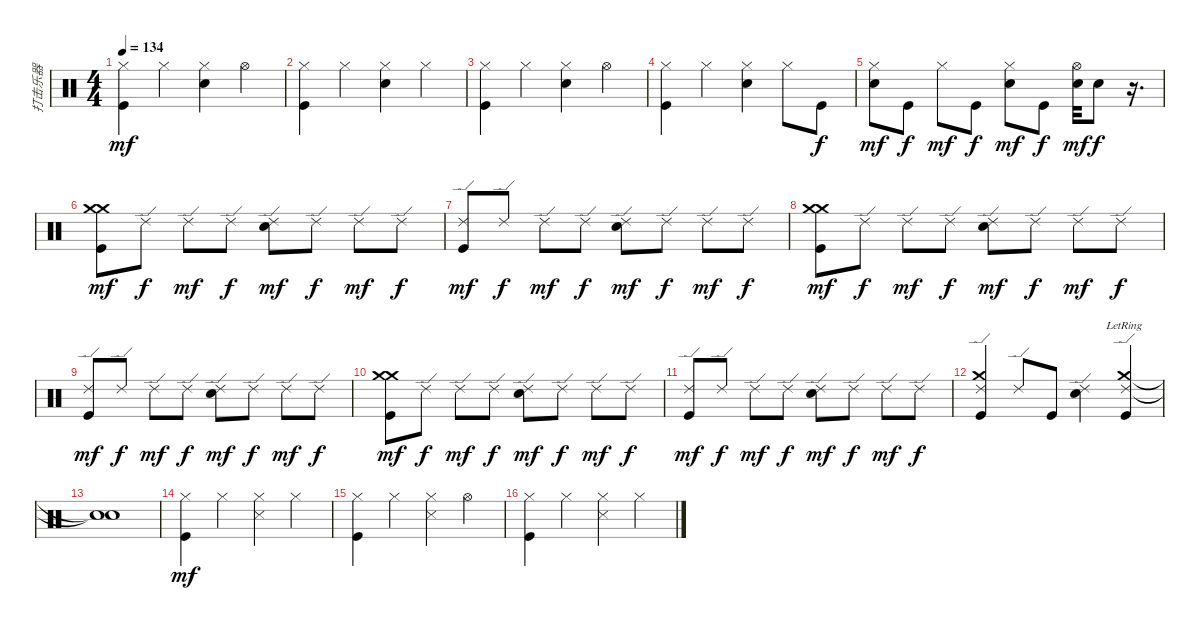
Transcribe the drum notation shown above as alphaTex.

\track ("打击乐器" "打击乐器") {instrument percussion}
\staff {score}
\articulation defaults
\ts (4 4)
\tempo 134
\clef neutral
\ks c
("Hi-Hat (closed)" "Kick (hit)").4{dy mf} "Hi-Hat (closed)".4 ("Hi-Hat (closed)" "Electric Snare (hit)").4 "Hi-Hat (open)".4 |
("Hi-Hat (closed)" "Kick (hit)").4 "Hi-Hat (closed)".4 ("Hi-Hat (closed)" "Electric Snare (hit)").4 "Hi-Hat (closed)".4 |
("Hi-Hat (closed)" "Kick (hit)").4 "Hi-Hat (closed)".4 ("Hi-Hat (closed)" "Electric Snare (hit)").4 "Hi-Hat (open)".4 |
("Hi-Hat (closed)" "Kick (hit)").4 "Hi-Hat (closed)".4 ("Hi-Hat (closed)" "Electric Snare (hit)").4 "Hi-Hat (closed)".8 "Kick (hit)".8{dy f} |
("Hi-Hat (closed)" "Electric Snare (hit)").8{dy mf} "Kick (hit)".8{dy f} "Hi-Hat (closed)".8{dy mf} "Kick (hit)".8{dy f} ("Hi-Hat (closed)" "Electric Snare (hit)").8{dy mf} "Kick (hit)".8{dy f} ("Hi-Hat (open)" "Electric Snare (hit)").32{dy mf} "Electric Snare (hit)".8{dy f} r.16{d} |
("Crash medium (hit)" "Crash medium (hit)" "Kick (hit)").8{dy mf} "Ride (edge) 2".8{dy f} "Ride (edge) 2".8{dy mf} "Ride (edge) 2".8{dy f} ("Ride (edge) 2" "Electric Snare (hit)").8{dy mf} "Ride (edge) 2".8{dy f} "Ride (edge) 2".8{dy mf} "Ride (edge) 2".8{dy f} |
("Ride (edge) 2" "Kick (hit)").8{dy mf} "Ride (edge) 2".8{dy f} "Ride (edge) 2".8{dy mf} "Ride (edge) 2".8{dy f} ("Ride (edge) 2" "Electric Snare (hit)").8{dy mf} "Ride (edge) 2".8{dy f} "Ride (edge) 2".8{dy mf} "Ride (edge) 2".8{dy f} |
("Crash medium (hit)" "Crash medium (hit)" "Kick (hit)").8{dy mf} "Ride (edge) 2".8{dy f} "Ride (edge) 2".8{dy mf} "Ride (edge) 2".8{dy f} ("Ride (edge) 2" "Electric Snare (hit)").8{dy mf} "Ride (edge) 2".8{dy f} "Ride (edge) 2".8{dy mf} "Ride (edge) 2".8{dy f} |
("Ride (edge) 2" "Kick (hit)").8{dy mf} "Ride (edge) 2".8{dy f} "Ride (edge) 2".8{dy mf} "Ride (edge) 2".8{dy f} ("Ride (edge) 2" "Electric Snare (hit)").8{dy mf} "Ride (edge) 2".8{dy f} "Ride (edge) 2".8{dy mf} "Ride (edge) 2".8{dy f} |
("Crash medium (hit)" "Crash medium (hit)" "Kick (hit)").8{dy mf} "Ride (edge) 2".8{dy f} "Ride (edge) 2".8{dy mf} "Ride (edge) 2".8{dy f} ("Ride (edge) 2" "Electric Snare (hit)").8{dy mf} "Ride (edge) 2".8{dy f} "Ride (edge) 2".8{dy mf} "Ride (edge) 2".8{dy f} |
("Ride (edge) 2" "Kick (hit)").8{dy mf} "Ride (edge) 2".8{dy f} "Ride (edge) 2".8{dy mf} "Ride (edge) 2".8{dy f} ("Ride (edge) 2" "Electric Snare (hit)").8{dy mf} "Ride (edge) 2".8{dy f} "Ride (edge) 2".8{dy mf} "Ride (edge) 2".8{dy f} |
("Ride (edge) 2" "Crash medium (hit)" "Kick (hit)").4 "Ride (edge) 2".8 "Kick (hit)".8 ("Ride (edge) 2" "Electric Snare (hit)").4 ("Ride (edge) 2" "Crash medium (hit)"{lr} "Kick (hit)").4 |
("Snare (hit)"{t} "Snare (hit)"{t}).1 |
("Hi-Hat (closed)" "Kick (hit)").4{dy mf} "Hi-Hat (closed)".4 ("Hi-Hat (closed)" "Snare (side stick) 3").4 "Hi-Hat (closed)".4 |
("Hi-Hat (closed)" "Kick (hit)").4 "Hi-Hat (closed)".4 ("Hi-Hat (closed)" "Snare (side stick) 3").4 "Hi-Hat (open)".4 |
("Hi-Hat (closed)" "Kick (hit)").4 "Hi-Hat (closed)".4 ("Hi-Hat (closed)" "Snare (side stick) 3").4 "Hi-Hat (closed)".4
